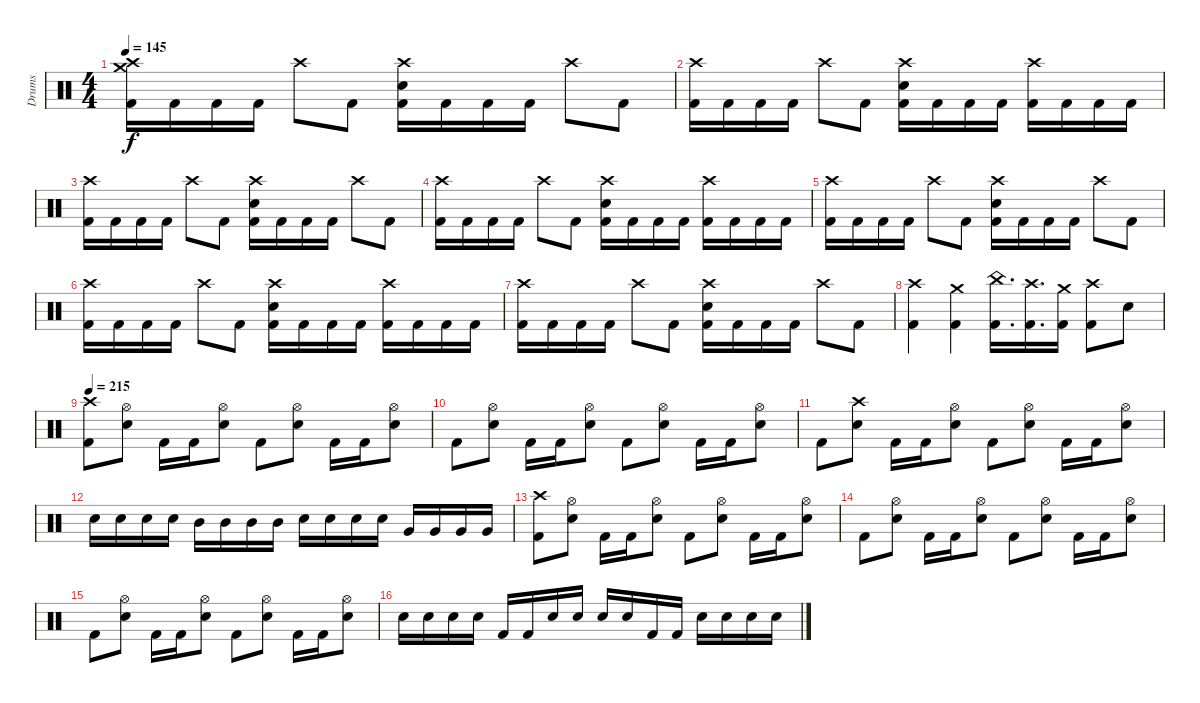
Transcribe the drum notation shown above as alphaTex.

\track ("Drums" "Drums") {instrument percussion}
\staff {score}
\articulation defaults
\ts (4 4)
\tempo 145
\clef neutral
\ks c
("Crash high (hit)" "Crash medium (hit)" "Kick (hit) 2").16{dy f} "Kick (hit) 2".16 "Kick (hit) 2".16 "Kick (hit) 2".16 "Crash high (hit)".8 "Kick (hit) 2".8 ("Crash high (hit)" "Electric Snare (hit)" "Kick (hit) 2").16 "Kick (hit) 2".16 "Kick (hit) 2".16 "Kick (hit) 2".16 "Crash high (hit)".8 "Kick (hit) 2".8 |
("Crash high (hit)" "Kick (hit) 2").16 "Kick (hit) 2".16 "Kick (hit) 2".16 "Kick (hit) 2".16 "Crash high (hit)".8 "Kick (hit) 2".8 ("Crash high (hit)" "Electric Snare (hit)" "Kick (hit) 2").16 "Kick (hit) 2".16 "Kick (hit) 2".16 "Kick (hit) 2".16 ("Crash high (hit)" "Kick (hit) 2").16 "Kick (hit) 2".16 "Kick (hit) 2".16 "Kick (hit) 2".16 |
("Crash high (hit)" "Kick (hit) 2").16 "Kick (hit) 2".16 "Kick (hit) 2".16 "Kick (hit) 2".16 "Crash high (hit)".8 "Kick (hit) 2".8 ("Crash high (hit)" "Electric Snare (hit)" "Kick (hit) 2").16 "Kick (hit) 2".16 "Kick (hit) 2".16 "Kick (hit) 2".16 "Crash high (hit)".8 "Kick (hit) 2".8 |
("Crash high (hit)" "Kick (hit) 2").16 "Kick (hit) 2".16 "Kick (hit) 2".16 "Kick (hit) 2".16 "Crash high (hit)".8 "Kick (hit) 2".8 ("Crash high (hit)" "Electric Snare (hit)" "Kick (hit) 2").16 "Kick (hit) 2".16 "Kick (hit) 2".16 "Kick (hit) 2".16 ("Crash high (hit)" "Kick (hit) 2").16 "Kick (hit) 2".16 "Kick (hit) 2".16 "Kick (hit) 2".16 |
("Crash high (hit)" "Kick (hit) 2").16 "Kick (hit) 2".16 "Kick (hit) 2".16 "Kick (hit) 2".16 "Crash high (hit)".8 "Kick (hit) 2".8 ("Crash high (hit)" "Electric Snare (hit)" "Kick (hit) 2").16 "Kick (hit) 2".16 "Kick (hit) 2".16 "Kick (hit) 2".16 "Crash high (hit)".8 "Kick (hit) 2".8 |
("Crash high (hit)" "Kick (hit) 2").16 "Kick (hit) 2".16 "Kick (hit) 2".16 "Kick (hit) 2".16 "Crash high (hit)".8 "Kick (hit) 2".8 ("Crash high (hit)" "Electric Snare (hit)" "Kick (hit) 2").16 "Kick (hit) 2".16 "Kick (hit) 2".16 "Kick (hit) 2".16 ("Crash high (hit)" "Kick (hit) 2").16 "Kick (hit) 2".16 "Kick (hit) 2".16 "Kick (hit) 2".16 |
("Crash high (hit)" "Kick (hit) 2").16 "Kick (hit) 2".16 "Kick (hit) 2".16 "Kick (hit) 2".16 "Crash high (hit)".8 "Kick (hit) 2".8 ("Crash high (hit)" "Electric Snare (hit)" "Kick (hit) 2").16 "Kick (hit) 2".16 "Kick (hit) 2".16 "Kick (hit) 2".16 "Crash high (hit)".8 "Kick (hit) 2".8 |
("Crash high (hit)" "Kick (hit) 2").4 ("Crash medium (hit)" "Kick (hit) 2").4 ("China (hit)" "Kick (hit) 2").16{d} ("Crash high (hit)" "Kick (hit) 2").16{d} ("Crash medium (hit)" "Kick (hit) 2").16 ("Crash high (hit)" "Kick (hit) 2").8 "Electric Snare (hit)".8 |
\tempo 215
("Crash high (hit)" "Kick (hit) 2").8 ("Hi-Hat (open)" "Electric Snare (hit)").8 "Kick (hit) 2".16 "Kick (hit) 2".16 ("Hi-Hat (open)" "Electric Snare (hit)").8 "Kick (hit) 2".8 ("Hi-Hat (open)" "Electric Snare (hit)").8 "Kick (hit) 2".16 "Kick (hit) 2".16 ("Hi-Hat (open)" "Electric Snare (hit)").8 |
"Kick (hit) 2".8 ("Hi-Hat (open)" "Electric Snare (hit)").8 "Kick (hit) 2".16 "Kick (hit) 2".16 ("Hi-Hat (open)" "Electric Snare (hit)").8 "Kick (hit) 2".8 ("Hi-Hat (open)" "Electric Snare (hit)").8 "Kick (hit) 2".16 "Kick (hit) 2".16 ("Hi-Hat (open)" "Electric Snare (hit)").8 |
"Kick (hit) 2".8 ("Crash high (hit)" "Electric Snare (hit)").8 "Kick (hit) 2".16 "Kick (hit) 2".16 ("Hi-Hat (open)" "Electric Snare (hit)").8 "Kick (hit) 2".8 ("Hi-Hat (open)" "Electric Snare (hit)").8 "Kick (hit) 2".16 "Kick (hit) 2".16 ("Hi-Hat (open)" "Electric Snare (hit)").8 |
"Electric Snare (hit)".16 "Electric Snare (hit)".16 "Electric Snare (hit)".16 "Electric Snare (hit)".16 "Mid Tom (hit)".16 "Mid Tom (hit)".16 "Mid Tom (hit)".16 "Mid Tom (hit)".16 "Electric Snare (hit)".16 "Electric Snare (hit)".16 "Electric Snare (hit)".16 "Electric Snare (hit)".16 "Very Low Tom (hit)".16 "Very Low Tom (hit)".16 "Very Low Tom (hit)".16 "Very Low Tom (hit)".16 |
("Crash high (hit)" "Kick (hit) 2").8 ("Hi-Hat (open)" "Electric Snare (hit)").8 "Kick (hit) 2".16 "Kick (hit) 2".16 ("Hi-Hat (open)" "Electric Snare (hit)").8 "Kick (hit) 2".8 ("Hi-Hat (open)" "Electric Snare (hit)").8 "Kick (hit) 2".16 "Kick (hit) 2".16 ("Hi-Hat (open)" "Electric Snare (hit)").8 |
"Kick (hit) 2".8 ("Hi-Hat (open)" "Electric Snare (hit)").8 "Kick (hit) 2".16 "Kick (hit) 2".16 ("Hi-Hat (open)" "Electric Snare (hit)").8 "Kick (hit) 2".8 ("Hi-Hat (open)" "Electric Snare (hit)").8 "Kick (hit) 2".16 "Kick (hit) 2".16 ("Hi-Hat (open)" "Electric Snare (hit)").8 |
"Kick (hit) 2".8 ("Hi-Hat (open)" "Electric Snare (hit)").8 "Kick (hit) 2".16 "Kick (hit) 2".16 ("Hi-Hat (open)" "Electric Snare (hit)").8 "Kick (hit) 2".8 ("Hi-Hat (open)" "Electric Snare (hit)").8 "Kick (hit) 2".16 "Kick (hit) 2".16 ("Hi-Hat (open)" "Electric Snare (hit)").8 |
"Electric Snare (hit)".16 "Electric Snare (hit)".16 "Electric Snare (hit)".16 "Electric Snare (hit)".16 "Kick (hit) 2".16 "Kick (hit) 2".16 "Electric Snare (hit)".16 "Electric Snare (hit)".16 "Electric Snare (hit)".16 "Electric Snare (hit)".16 "Kick (hit) 2".16 "Kick (hit) 2".16 "Electric Snare (hit)".16 "Electric Snare (hit)".16 "Electric Snare (hit)".16 "Electric Snare (hit)".16
